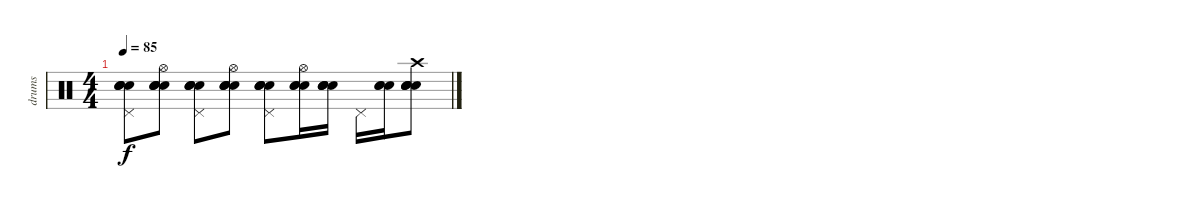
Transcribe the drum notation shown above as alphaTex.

\track ("drums" "drums") {instrument percussion}
\staff {score}
\articulation defaults
\ts (4 4)
\tempo 85
\clef neutral
\ks c
("Pedal Hi-Hat (hit)" "Snare (hit) 2" "Snare (hit) 2" "Snare (hit) 2" "Snare (hit) 2").8{dy f} ("Hi-Hat (open)" "Electric Snare (hit)" "Electric Snare (hit)" "Electric Snare (hit)" "Electric Snare (hit)").8 ("Pedal Hi-Hat (hit)" "Snare (hit) 2" "Snare (hit) 2" "Snare (hit) 2" "Snare (hit) 2").8 ("Hi-Hat (open)" "Electric Snare (hit)" "Electric Snare (hit)" "Electric Snare (hit)" "Electric Snare (hit)").8 ("Pedal Hi-Hat (hit)" "Snare (hit) 2" "Snare (hit) 2" "Snare (hit) 2" "Snare (hit) 2").8 ("Hi-Hat (open)" "Electric Snare (hit)" "Electric Snare (hit)" "Electric Snare (hit)").16 ("Electric Snare (hit)" "Electric Snare (hit)" "Electric Snare (hit)" "Electric Snare (hit)").16 "Pedal Hi-Hat (hit)".16 ("Snare (hit) 2" "Snare (hit) 2" "Snare (hit) 2").16 ("Crash high (hit)" "Snare (hit) 2" "Snare (hit) 2" "Snare (hit) 2" "Snare (hit) 2").8
